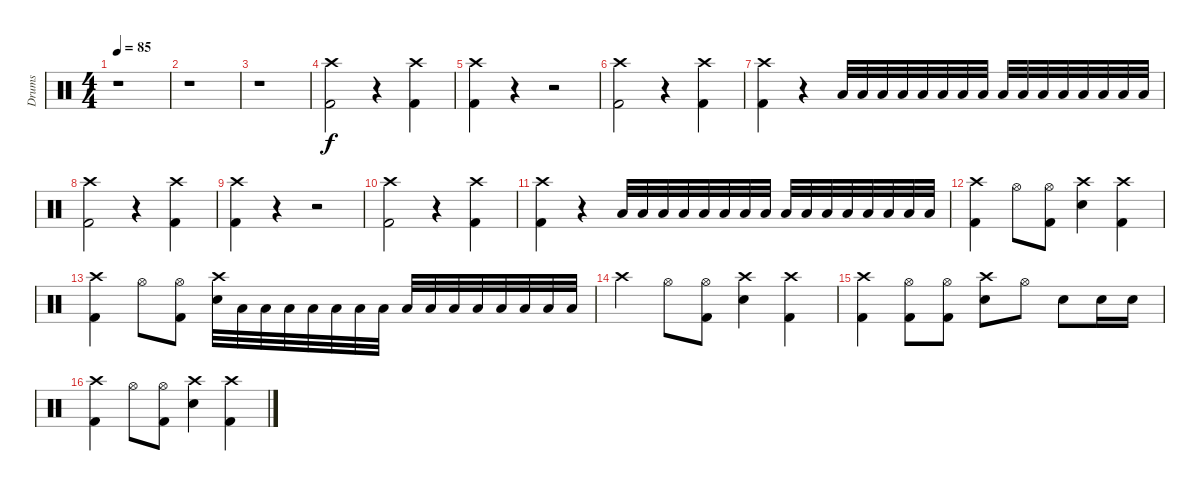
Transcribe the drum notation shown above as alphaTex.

\track ("Drums" "Drums") {instrument percussion}
\staff {score}
\articulation defaults
\ts (4 4)
\tempo 85
\clef neutral
\ks c
r.1{dy f} |
r.1 |
r.1 |
("Crash high (hit)" "Kick (hit) 2").2 r.4 ("Crash high (hit)" "Kick (hit) 2").4 |
("Crash high (hit)" "Kick (hit) 2").4 r.4 r.2 |
("Crash high (hit)" "Kick (hit) 2").2 r.4 ("Crash high (hit)" "Kick (hit) 2").4 |
("Crash high (hit)" "Kick (hit) 2").4 r.4 "Low Tom (hit)".32 "Low Tom (hit)".32 "Low Tom (hit)".32 "Low Tom (hit)".32 "Low Tom (hit)".32 "Low Tom (hit)".32 "Low Tom (hit)".32 "Low Tom (hit)".32 "Low Tom (hit)".32 "Low Tom (hit)".32 "Low Tom (hit)".32 "Low Tom (hit)".32 "Low Tom (hit)".32 "Low Tom (hit)".32 "Low Tom (hit)".32 "Low Tom (hit)".32 |
("Crash high (hit)" "Kick (hit) 2").2 r.4 ("Crash high (hit)" "Kick (hit) 2").4 |
("Crash high (hit)" "Kick (hit) 2").4 r.4 r.2 |
("Crash high (hit)" "Kick (hit) 2").2 r.4 ("Crash high (hit)" "Kick (hit) 2").4 |
("Crash high (hit)" "Kick (hit) 2").4 r.4 "Low Tom (hit)".32 "Low Tom (hit)".32 "Low Tom (hit)".32 "Low Tom (hit)".32 "Low Tom (hit)".32 "Low Tom (hit)".32 "Low Tom (hit)".32 "Low Tom (hit)".32 "Low Tom (hit)".32 "Low Tom (hit)".32 "Low Tom (hit)".32 "Low Tom (hit)".32 "Low Tom (hit)".32 "Low Tom (hit)".32 "Low Tom (hit)".32 "Low Tom (hit)".32 |
("Crash high (hit)" "Kick (hit) 2").4 "Hi-Hat (open)".8 ("Hi-Hat (open)" "Kick (hit) 2").8 ("Crash high (hit)" "Electric Snare (hit)").4 ("Crash high (hit)" "Kick (hit) 2").4 |
("Crash high (hit)" "Kick (hit) 2").4 "Hi-Hat (open)".8 ("Hi-Hat (open)" "Kick (hit) 2").8 ("Crash high (hit)" "Electric Snare (hit)").32 "Low Tom (hit)".32 "Low Tom (hit)".32 "Low Tom (hit)".32 "Low Tom (hit)".32 "Low Tom (hit)".32 "Low Tom (hit)".32 "Low Tom (hit)".32 "Low Tom (hit)".32 "Low Tom (hit)".32 "Low Tom (hit)".32 "Low Tom (hit)".32 "Low Tom (hit)".32 "Low Tom (hit)".32 "Low Tom (hit)".32 "Low Tom (hit)".32 |
"Crash high (hit)".4 "Hi-Hat (open)".8 ("Hi-Hat (open)" "Kick (hit) 2").8 ("Crash high (hit)" "Electric Snare (hit)").4 ("Crash high (hit)" "Kick (hit) 2").4 |
("Crash high (hit)" "Kick (hit) 2").4 ("Hi-Hat (open)" "Kick (hit) 2").8 ("Hi-Hat (open)" "Kick (hit) 2").8 ("Crash high (hit)" "Electric Snare (hit)").8 "Hi-Hat (open)".8 "Electric Snare (hit)".8 "Electric Snare (hit)".16 "Electric Snare (hit)".16 |
("Crash high (hit)" "Kick (hit) 2").4 "Hi-Hat (open)".8 ("Hi-Hat (open)" "Kick (hit) 2").8 ("Crash high (hit)" "Electric Snare (hit)").4 ("Crash high (hit)" "Kick (hit) 2").4
